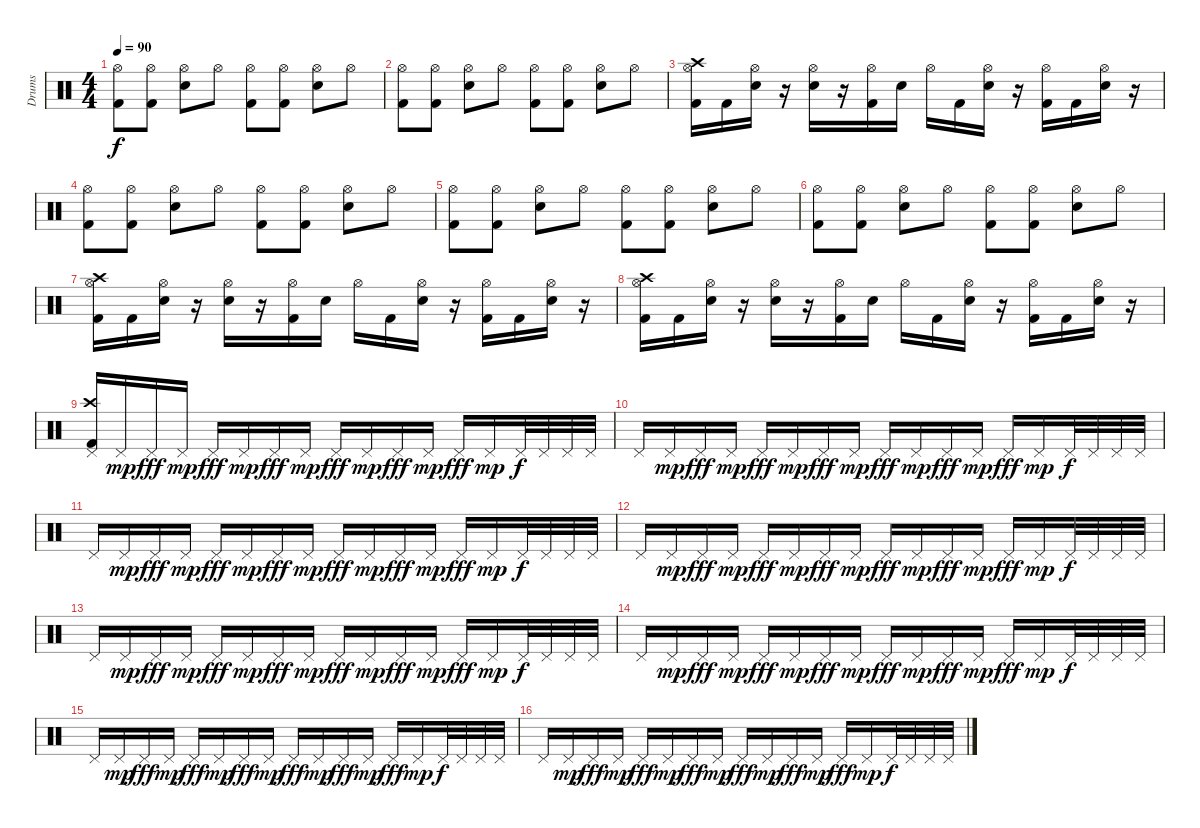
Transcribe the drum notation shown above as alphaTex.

\track ("Drums" "Drums") {instrument percussion}
\staff {score}
\articulation defaults
\ts (4 4)
\tempo 90
\clef neutral
\ks c
("Hi-Hat (open)" "Kick (hit) 2").8{dy f} ("Hi-Hat (open)" "Kick (hit) 2").8 ("Hi-Hat (open)" "Electric Snare (hit)").8 "Hi-Hat (open)".8 ("Hi-Hat (open)" "Kick (hit) 2").8 ("Hi-Hat (open)" "Kick (hit) 2").8 ("Hi-Hat (open)" "Electric Snare (hit)").8 "Hi-Hat (open)".8 |
("Hi-Hat (open)" "Kick (hit) 2").8 ("Hi-Hat (open)" "Kick (hit) 2").8 ("Hi-Hat (open)" "Electric Snare (hit)").8 "Hi-Hat (open)".8 ("Hi-Hat (open)" "Kick (hit) 2").8 ("Hi-Hat (open)" "Kick (hit) 2").8 ("Hi-Hat (open)" "Electric Snare (hit)").8 "Hi-Hat (open)".8 |
("Crash high (hit)" "Hi-Hat (open)" "Kick (hit) 2").16 "Kick (hit) 2".16 ("Hi-Hat (open)" "Electric Snare (hit)").16 r.16 ("Hi-Hat (open)" "Electric Snare (hit)").16 r.16 ("Hi-Hat (open)" "Kick (hit) 2").16 "Electric Snare (hit)".16 "Hi-Hat (open)".16 "Kick (hit) 2".16 ("Hi-Hat (open)" "Electric Snare (hit)").16 r.16 ("Hi-Hat (open)" "Kick (hit) 2").16 "Kick (hit) 2".16 ("Hi-Hat (open)" "Electric Snare (hit)").16 r.16 |
("Hi-Hat (open)" "Kick (hit) 2").8 ("Hi-Hat (open)" "Kick (hit) 2").8 ("Hi-Hat (open)" "Electric Snare (hit)").8 "Hi-Hat (open)".8 ("Hi-Hat (open)" "Kick (hit) 2").8 ("Hi-Hat (open)" "Kick (hit) 2").8 ("Hi-Hat (open)" "Electric Snare (hit)").8 "Hi-Hat (open)".8 |
("Hi-Hat (open)" "Kick (hit) 2").8 ("Hi-Hat (open)" "Kick (hit) 2").8 ("Hi-Hat (open)" "Electric Snare (hit)").8 "Hi-Hat (open)".8 ("Hi-Hat (open)" "Kick (hit) 2").8 ("Hi-Hat (open)" "Kick (hit) 2").8 ("Hi-Hat (open)" "Electric Snare (hit)").8 "Hi-Hat (open)".8 |
("Hi-Hat (open)" "Kick (hit) 2").8 ("Hi-Hat (open)" "Kick (hit) 2").8 ("Hi-Hat (open)" "Electric Snare (hit)").8 "Hi-Hat (open)".8 ("Hi-Hat (open)" "Kick (hit) 2").8 ("Hi-Hat (open)" "Kick (hit) 2").8 ("Hi-Hat (open)" "Electric Snare (hit)").8 "Hi-Hat (open)".8 |
("Crash high (hit)" "Hi-Hat (open)" "Kick (hit) 2").16 "Kick (hit) 2".16 ("Hi-Hat (open)" "Electric Snare (hit)").16 r.16 ("Hi-Hat (open)" "Electric Snare (hit)").16 r.16 ("Hi-Hat (open)" "Kick (hit) 2").16 "Electric Snare (hit)".16 "Hi-Hat (open)".16 "Kick (hit) 2".16 ("Hi-Hat (open)" "Electric Snare (hit)").16 r.16 ("Hi-Hat (open)" "Kick (hit) 2").16 "Kick (hit) 2".16 ("Hi-Hat (open)" "Electric Snare (hit)").16 r.16 |
("Crash high (hit)" "Hi-Hat (open)" "Kick (hit) 2").16 "Kick (hit) 2".16 ("Hi-Hat (open)" "Electric Snare (hit)").16 r.16 ("Hi-Hat (open)" "Electric Snare (hit)").16 r.16 ("Hi-Hat (open)" "Kick (hit) 2").16 "Electric Snare (hit)".16 "Hi-Hat (open)".16 "Kick (hit) 2".16 ("Hi-Hat (open)" "Electric Snare (hit)").16 r.16 ("Hi-Hat (open)" "Kick (hit) 2").16 "Kick (hit) 2".16 ("Hi-Hat (open)" "Electric Snare (hit)").16 r.16 |
("Crash high (hit)" "Pedal Hi-Hat (hit)" "Kick (hit) 2").16 "Pedal Hi-Hat (hit)".16{dy mp} "Pedal Hi-Hat (hit)".16{dy fff} "Pedal Hi-Hat (hit)".16{dy mp} "Pedal Hi-Hat (hit)".16{dy fff} "Pedal Hi-Hat (hit)".16{dy mp} "Pedal Hi-Hat (hit)".16{dy fff} "Pedal Hi-Hat (hit)".16{dy mp} "Pedal Hi-Hat (hit)".16{dy fff} "Pedal Hi-Hat (hit)".16{dy mp} "Pedal Hi-Hat (hit)".16{dy fff} "Pedal Hi-Hat (hit)".16{dy mp} "Pedal Hi-Hat (hit)".16{dy fff} "Pedal Hi-Hat (hit)".16{dy mp} "Pedal Hi-Hat (hit)".32{dy f} "Pedal Hi-Hat (hit)".32 "Pedal Hi-Hat (hit)".32 "Pedal Hi-Hat (hit)".32 |
"Pedal Hi-Hat (hit)".16 "Pedal Hi-Hat (hit)".16{dy mp} "Pedal Hi-Hat (hit)".16{dy fff} "Pedal Hi-Hat (hit)".16{dy mp} "Pedal Hi-Hat (hit)".16{dy fff} "Pedal Hi-Hat (hit)".16{dy mp} "Pedal Hi-Hat (hit)".16{dy fff} "Pedal Hi-Hat (hit)".16{dy mp} "Pedal Hi-Hat (hit)".16{dy fff} "Pedal Hi-Hat (hit)".16{dy mp} "Pedal Hi-Hat (hit)".16{dy fff} "Pedal Hi-Hat (hit)".16{dy mp} "Pedal Hi-Hat (hit)".16{dy fff} "Pedal Hi-Hat (hit)".16{dy mp} "Pedal Hi-Hat (hit)".32{dy f} "Pedal Hi-Hat (hit)".32 "Pedal Hi-Hat (hit)".32 "Pedal Hi-Hat (hit)".32 |
"Pedal Hi-Hat (hit)".16 "Pedal Hi-Hat (hit)".16{dy mp} "Pedal Hi-Hat (hit)".16{dy fff} "Pedal Hi-Hat (hit)".16{dy mp} "Pedal Hi-Hat (hit)".16{dy fff} "Pedal Hi-Hat (hit)".16{dy mp} "Pedal Hi-Hat (hit)".16{dy fff} "Pedal Hi-Hat (hit)".16{dy mp} "Pedal Hi-Hat (hit)".16{dy fff} "Pedal Hi-Hat (hit)".16{dy mp} "Pedal Hi-Hat (hit)".16{dy fff} "Pedal Hi-Hat (hit)".16{dy mp} "Pedal Hi-Hat (hit)".16{dy fff} "Pedal Hi-Hat (hit)".16{dy mp} "Pedal Hi-Hat (hit)".32{dy f} "Pedal Hi-Hat (hit)".32 "Pedal Hi-Hat (hit)".32 "Pedal Hi-Hat (hit)".32 |
"Pedal Hi-Hat (hit)".16 "Pedal Hi-Hat (hit)".16{dy mp} "Pedal Hi-Hat (hit)".16{dy fff} "Pedal Hi-Hat (hit)".16{dy mp} "Pedal Hi-Hat (hit)".16{dy fff} "Pedal Hi-Hat (hit)".16{dy mp} "Pedal Hi-Hat (hit)".16{dy fff} "Pedal Hi-Hat (hit)".16{dy mp} "Pedal Hi-Hat (hit)".16{dy fff} "Pedal Hi-Hat (hit)".16{dy mp} "Pedal Hi-Hat (hit)".16{dy fff} "Pedal Hi-Hat (hit)".16{dy mp} "Pedal Hi-Hat (hit)".16{dy fff} "Pedal Hi-Hat (hit)".16{dy mp} "Pedal Hi-Hat (hit)".32{dy f} "Pedal Hi-Hat (hit)".32 "Pedal Hi-Hat (hit)".32 "Pedal Hi-Hat (hit)".32 |
"Pedal Hi-Hat (hit)".16 "Pedal Hi-Hat (hit)".16{dy mp} "Pedal Hi-Hat (hit)".16{dy fff} "Pedal Hi-Hat (hit)".16{dy mp} "Pedal Hi-Hat (hit)".16{dy fff} "Pedal Hi-Hat (hit)".16{dy mp} "Pedal Hi-Hat (hit)".16{dy fff} "Pedal Hi-Hat (hit)".16{dy mp} "Pedal Hi-Hat (hit)".16{dy fff} "Pedal Hi-Hat (hit)".16{dy mp} "Pedal Hi-Hat (hit)".16{dy fff} "Pedal Hi-Hat (hit)".16{dy mp} "Pedal Hi-Hat (hit)".16{dy fff} "Pedal Hi-Hat (hit)".16{dy mp} "Pedal Hi-Hat (hit)".32{dy f} "Pedal Hi-Hat (hit)".32 "Pedal Hi-Hat (hit)".32 "Pedal Hi-Hat (hit)".32 |
"Pedal Hi-Hat (hit)".16 "Pedal Hi-Hat (hit)".16{dy mp} "Pedal Hi-Hat (hit)".16{dy fff} "Pedal Hi-Hat (hit)".16{dy mp} "Pedal Hi-Hat (hit)".16{dy fff} "Pedal Hi-Hat (hit)".16{dy mp} "Pedal Hi-Hat (hit)".16{dy fff} "Pedal Hi-Hat (hit)".16{dy mp} "Pedal Hi-Hat (hit)".16{dy fff} "Pedal Hi-Hat (hit)".16{dy mp} "Pedal Hi-Hat (hit)".16{dy fff} "Pedal Hi-Hat (hit)".16{dy mp} "Pedal Hi-Hat (hit)".16{dy fff} "Pedal Hi-Hat (hit)".16{dy mp} "Pedal Hi-Hat (hit)".32{dy f} "Pedal Hi-Hat (hit)".32 "Pedal Hi-Hat (hit)".32 "Pedal Hi-Hat (hit)".32 |
"Pedal Hi-Hat (hit)".16 "Pedal Hi-Hat (hit)".16{dy mp} "Pedal Hi-Hat (hit)".16{dy fff} "Pedal Hi-Hat (hit)".16{dy mp} "Pedal Hi-Hat (hit)".16{dy fff} "Pedal Hi-Hat (hit)".16{dy mp} "Pedal Hi-Hat (hit)".16{dy fff} "Pedal Hi-Hat (hit)".16{dy mp} "Pedal Hi-Hat (hit)".16{dy fff} "Pedal Hi-Hat (hit)".16{dy mp} "Pedal Hi-Hat (hit)".16{dy fff} "Pedal Hi-Hat (hit)".16{dy mp} "Pedal Hi-Hat (hit)".16{dy fff} "Pedal Hi-Hat (hit)".16{dy mp} "Pedal Hi-Hat (hit)".32{dy f} "Pedal Hi-Hat (hit)".32 "Pedal Hi-Hat (hit)".32 "Pedal Hi-Hat (hit)".32 |
"Pedal Hi-Hat (hit)".16 "Pedal Hi-Hat (hit)".16{dy mp} "Pedal Hi-Hat (hit)".16{dy fff} "Pedal Hi-Hat (hit)".16{dy mp} "Pedal Hi-Hat (hit)".16{dy fff} "Pedal Hi-Hat (hit)".16{dy mp} "Pedal Hi-Hat (hit)".16{dy fff} "Pedal Hi-Hat (hit)".16{dy mp} "Pedal Hi-Hat (hit)".16{dy fff} "Pedal Hi-Hat (hit)".16{dy mp} "Pedal Hi-Hat (hit)".16{dy fff} "Pedal Hi-Hat (hit)".16{dy mp} "Pedal Hi-Hat (hit)".16{dy fff} "Pedal Hi-Hat (hit)".16{dy mp} "Pedal Hi-Hat (hit)".32{dy f} "Pedal Hi-Hat (hit)".32 "Pedal Hi-Hat (hit)".32 "Pedal Hi-Hat (hit)".32
